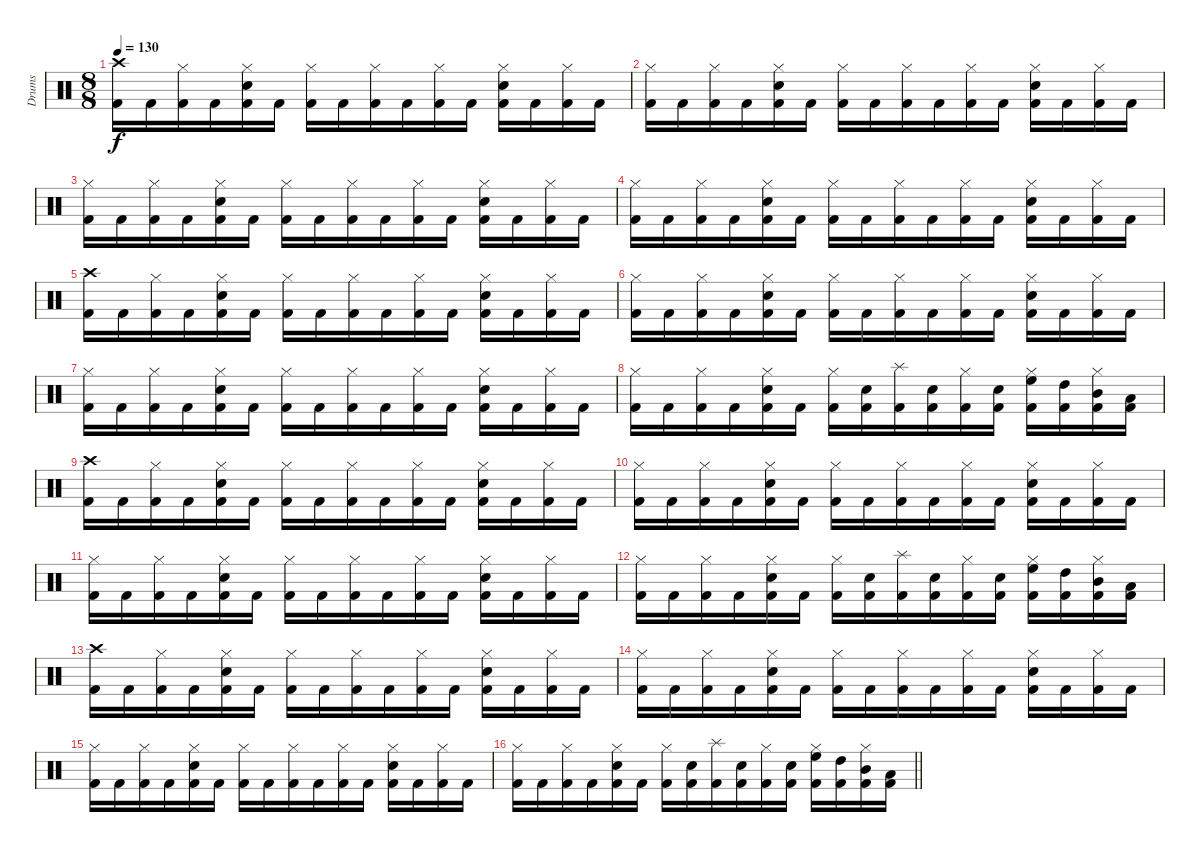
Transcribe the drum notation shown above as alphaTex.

\track ("Drums" "Drums") {instrument percussion}
\staff {score}
\articulation defaults
\ts (8 8)
\tempo 130
\clef neutral
\ks c
("Kick (hit) 2" "Crash high (hit)").16{dy f} "Kick (hit) 2".16 ("Kick (hit) 2" "Hi-Hat (closed)").16 "Kick (hit) 2".16 ("Kick (hit) 2" "Electric Snare (hit)" "Hi-Hat (closed)").16 "Kick (hit) 2".16 ("Kick (hit) 2" "Hi-Hat (closed)").16 "Kick (hit) 2".16 ("Kick (hit) 2" "Hi-Hat (closed)").16 "Kick (hit) 2".16 ("Kick (hit) 2" "Hi-Hat (closed)").16 "Kick (hit) 2".16 ("Kick (hit) 2" "Electric Snare (hit)" "Hi-Hat (closed)").16 "Kick (hit) 2".16 ("Kick (hit) 2" "Hi-Hat (closed)").16 "Kick (hit) 2".16 |
("Kick (hit) 2" "Hi-Hat (closed)").16 "Kick (hit) 2".16 ("Kick (hit) 2" "Hi-Hat (closed)").16 "Kick (hit) 2".16 ("Kick (hit) 2" "Electric Snare (hit)" "Hi-Hat (closed)").16 "Kick (hit) 2".16 ("Kick (hit) 2" "Hi-Hat (closed)").16 "Kick (hit) 2".16 ("Kick (hit) 2" "Hi-Hat (closed)").16 "Kick (hit) 2".16 ("Kick (hit) 2" "Hi-Hat (closed)").16 "Kick (hit) 2".16 ("Kick (hit) 2" "Electric Snare (hit)" "Hi-Hat (closed)").16 "Kick (hit) 2".16 ("Kick (hit) 2" "Hi-Hat (closed)").16 "Kick (hit) 2".16 |
("Kick (hit) 2" "Hi-Hat (closed)").16 "Kick (hit) 2".16 ("Kick (hit) 2" "Hi-Hat (closed)").16 "Kick (hit) 2".16 ("Kick (hit) 2" "Electric Snare (hit)" "Hi-Hat (closed)").16 "Kick (hit) 2".16 ("Kick (hit) 2" "Hi-Hat (closed)").16 "Kick (hit) 2".16 ("Kick (hit) 2" "Hi-Hat (closed)").16 "Kick (hit) 2".16 ("Kick (hit) 2" "Hi-Hat (closed)").16 "Kick (hit) 2".16 ("Kick (hit) 2" "Electric Snare (hit)" "Hi-Hat (closed)").16 "Kick (hit) 2".16 ("Kick (hit) 2" "Hi-Hat (closed)").16 "Kick (hit) 2".16 |
("Kick (hit) 2" "Hi-Hat (closed)").16 "Kick (hit) 2".16 ("Kick (hit) 2" "Hi-Hat (closed)").16 "Kick (hit) 2".16 ("Kick (hit) 2" "Electric Snare (hit)" "Hi-Hat (closed)").16 "Kick (hit) 2".16 ("Kick (hit) 2" "Hi-Hat (closed)").16 "Kick (hit) 2".16 ("Kick (hit) 2" "Hi-Hat (closed)").16 "Kick (hit) 2".16 ("Kick (hit) 2" "Hi-Hat (closed)").16 "Kick (hit) 2".16 ("Kick (hit) 2" "Electric Snare (hit)" "Hi-Hat (closed)").16 "Kick (hit) 2".16 ("Kick (hit) 2" "Hi-Hat (closed)").16 "Kick (hit) 2".16 |
("Kick (hit) 2" "Crash high (hit)").16 "Kick (hit) 2".16 ("Kick (hit) 2" "Hi-Hat (closed)").16 "Kick (hit) 2".16 ("Kick (hit) 2" "Electric Snare (hit)" "Hi-Hat (closed)").16 "Kick (hit) 2".16 ("Kick (hit) 2" "Hi-Hat (closed)").16 "Kick (hit) 2".16 ("Kick (hit) 2" "Hi-Hat (closed)").16 "Kick (hit) 2".16 ("Kick (hit) 2" "Hi-Hat (closed)").16 "Kick (hit) 2".16 ("Kick (hit) 2" "Electric Snare (hit)" "Hi-Hat (closed)").16 "Kick (hit) 2".16 ("Kick (hit) 2" "Hi-Hat (closed)").16 "Kick (hit) 2".16 |
("Kick (hit) 2" "Hi-Hat (closed)").16 "Kick (hit) 2".16 ("Kick (hit) 2" "Hi-Hat (closed)").16 "Kick (hit) 2".16 ("Kick (hit) 2" "Electric Snare (hit)" "Hi-Hat (closed)").16 "Kick (hit) 2".16 ("Kick (hit) 2" "Hi-Hat (closed)").16 "Kick (hit) 2".16 ("Kick (hit) 2" "Hi-Hat (closed)").16 "Kick (hit) 2".16 ("Kick (hit) 2" "Hi-Hat (closed)").16 "Kick (hit) 2".16 ("Kick (hit) 2" "Electric Snare (hit)" "Hi-Hat (closed)").16 "Kick (hit) 2".16 ("Kick (hit) 2" "Hi-Hat (closed)").16 "Kick (hit) 2".16 |
("Kick (hit) 2" "Hi-Hat (closed)").16 "Kick (hit) 2".16 ("Kick (hit) 2" "Hi-Hat (closed)").16 "Kick (hit) 2".16 ("Kick (hit) 2" "Electric Snare (hit)" "Hi-Hat (closed)").16 "Kick (hit) 2".16 ("Kick (hit) 2" "Hi-Hat (closed)").16 "Kick (hit) 2".16 ("Kick (hit) 2" "Hi-Hat (closed)").16 "Kick (hit) 2".16 ("Kick (hit) 2" "Hi-Hat (closed)").16 "Kick (hit) 2".16 ("Kick (hit) 2" "Electric Snare (hit)" "Hi-Hat (closed)").16 "Kick (hit) 2".16 ("Kick (hit) 2" "Hi-Hat (closed)").16 "Kick (hit) 2".16 |
("Kick (hit) 2" "Hi-Hat (closed)").16 "Kick (hit) 2".16 ("Kick (hit) 2" "Hi-Hat (closed)").16 "Kick (hit) 2".16 ("Kick (hit) 2" "Electric Snare (hit)" "Hi-Hat (closed)").16 "Kick (hit) 2".16 ("Kick (hit) 2" "Hi-Hat (closed)").16 ("Kick (hit) 2" "Electric Snare (hit)").16 ("Kick (hit) 2" "Splash (hit)").16 ("Kick (hit) 2" "Electric Snare (hit)").16 ("Kick (hit) 2" "Hi-Hat (closed)").16 ("Kick (hit) 2" "Electric Snare (hit)").16 ("Kick (hit) 2" "Hi-Hat (closed)" "High Floor Tom (hit)").16 ("Kick (hit) 2" "High Tom (hit)").16 ("Kick (hit) 2" "Hi-Hat (closed)" "Mid Tom (hit)").16 ("Kick (hit) 2" "Low Tom (hit)").16 |
("Kick (hit) 2" "Crash high (hit)").16 "Kick (hit) 2".16 ("Kick (hit) 2" "Hi-Hat (closed)").16 "Kick (hit) 2".16 ("Kick (hit) 2" "Electric Snare (hit)" "Hi-Hat (closed)").16 "Kick (hit) 2".16 ("Kick (hit) 2" "Hi-Hat (closed)").16 "Kick (hit) 2".16 ("Kick (hit) 2" "Hi-Hat (closed)").16 "Kick (hit) 2".16 ("Kick (hit) 2" "Hi-Hat (closed)").16 "Kick (hit) 2".16 ("Kick (hit) 2" "Electric Snare (hit)" "Hi-Hat (closed)").16 "Kick (hit) 2".16 ("Kick (hit) 2" "Hi-Hat (closed)").16 "Kick (hit) 2".16 |
("Kick (hit) 2" "Hi-Hat (closed)").16 "Kick (hit) 2".16 ("Kick (hit) 2" "Hi-Hat (closed)").16 "Kick (hit) 2".16 ("Kick (hit) 2" "Electric Snare (hit)" "Hi-Hat (closed)").16 "Kick (hit) 2".16 ("Kick (hit) 2" "Hi-Hat (closed)").16 "Kick (hit) 2".16 ("Kick (hit) 2" "Hi-Hat (closed)").16 "Kick (hit) 2".16 ("Kick (hit) 2" "Hi-Hat (closed)").16 "Kick (hit) 2".16 ("Kick (hit) 2" "Electric Snare (hit)" "Hi-Hat (closed)").16 "Kick (hit) 2".16 ("Kick (hit) 2" "Hi-Hat (closed)").16 "Kick (hit) 2".16 |
("Kick (hit) 2" "Hi-Hat (closed)").16 "Kick (hit) 2".16 ("Kick (hit) 2" "Hi-Hat (closed)").16 "Kick (hit) 2".16 ("Kick (hit) 2" "Electric Snare (hit)" "Hi-Hat (closed)").16 "Kick (hit) 2".16 ("Kick (hit) 2" "Hi-Hat (closed)").16 "Kick (hit) 2".16 ("Kick (hit) 2" "Hi-Hat (closed)").16 "Kick (hit) 2".16 ("Kick (hit) 2" "Hi-Hat (closed)").16 "Kick (hit) 2".16 ("Kick (hit) 2" "Electric Snare (hit)" "Hi-Hat (closed)").16 "Kick (hit) 2".16 ("Kick (hit) 2" "Hi-Hat (closed)").16 "Kick (hit) 2".16 |
("Kick (hit) 2" "Hi-Hat (closed)").16 "Kick (hit) 2".16 ("Kick (hit) 2" "Hi-Hat (closed)").16 "Kick (hit) 2".16 ("Kick (hit) 2" "Electric Snare (hit)" "Hi-Hat (closed)").16 "Kick (hit) 2".16 ("Kick (hit) 2" "Hi-Hat (closed)").16 ("Kick (hit) 2" "Electric Snare (hit)").16 ("Kick (hit) 2" "Splash (hit)").16 ("Kick (hit) 2" "Electric Snare (hit)").16 ("Kick (hit) 2" "Hi-Hat (closed)").16 ("Kick (hit) 2" "Electric Snare (hit)").16 ("Kick (hit) 2" "Hi-Hat (closed)" "High Floor Tom (hit)").16 ("Kick (hit) 2" "High Tom (hit)").16 ("Kick (hit) 2" "Hi-Hat (closed)" "Mid Tom (hit)").16 ("Kick (hit) 2" "Low Tom (hit)").16 |
("Kick (hit) 2" "Crash high (hit)").16 "Kick (hit) 2".16 ("Kick (hit) 2" "Hi-Hat (closed)").16 "Kick (hit) 2".16 ("Kick (hit) 2" "Electric Snare (hit)" "Hi-Hat (closed)").16 "Kick (hit) 2".16 ("Kick (hit) 2" "Hi-Hat (closed)").16 "Kick (hit) 2".16 ("Kick (hit) 2" "Hi-Hat (closed)").16 "Kick (hit) 2".16 ("Kick (hit) 2" "Hi-Hat (closed)").16 "Kick (hit) 2".16 ("Kick (hit) 2" "Electric Snare (hit)" "Hi-Hat (closed)").16 "Kick (hit) 2".16 ("Kick (hit) 2" "Hi-Hat (closed)").16 "Kick (hit) 2".16 |
("Kick (hit) 2" "Hi-Hat (closed)").16 "Kick (hit) 2".16 ("Kick (hit) 2" "Hi-Hat (closed)").16 "Kick (hit) 2".16 ("Kick (hit) 2" "Electric Snare (hit)" "Hi-Hat (closed)").16 "Kick (hit) 2".16 ("Kick (hit) 2" "Hi-Hat (closed)").16 "Kick (hit) 2".16 ("Kick (hit) 2" "Hi-Hat (closed)").16 "Kick (hit) 2".16 ("Kick (hit) 2" "Hi-Hat (closed)").16 "Kick (hit) 2".16 ("Kick (hit) 2" "Electric Snare (hit)" "Hi-Hat (closed)").16 "Kick (hit) 2".16 ("Kick (hit) 2" "Hi-Hat (closed)").16 "Kick (hit) 2".16 |
("Kick (hit) 2" "Hi-Hat (closed)").16 "Kick (hit) 2".16 ("Kick (hit) 2" "Hi-Hat (closed)").16 "Kick (hit) 2".16 ("Kick (hit) 2" "Electric Snare (hit)" "Hi-Hat (closed)").16 "Kick (hit) 2".16 ("Kick (hit) 2" "Hi-Hat (closed)").16 "Kick (hit) 2".16 ("Kick (hit) 2" "Hi-Hat (closed)").16 "Kick (hit) 2".16 ("Kick (hit) 2" "Hi-Hat (closed)").16 "Kick (hit) 2".16 ("Kick (hit) 2" "Electric Snare (hit)" "Hi-Hat (closed)").16 "Kick (hit) 2".16 ("Kick (hit) 2" "Hi-Hat (closed)").16 "Kick (hit) 2".16 |
\barLineRight lightlight
("Kick (hit) 2" "Hi-Hat (closed)").16 "Kick (hit) 2".16 ("Kick (hit) 2" "Hi-Hat (closed)").16 "Kick (hit) 2".16 ("Kick (hit) 2" "Electric Snare (hit)" "Hi-Hat (closed)").16 "Kick (hit) 2".16 ("Kick (hit) 2" "Hi-Hat (closed)").16 ("Kick (hit) 2" "Electric Snare (hit)").16 ("Kick (hit) 2" "Splash (hit)").16 ("Kick (hit) 2" "Electric Snare (hit)").16 ("Kick (hit) 2" "Hi-Hat (closed)").16 ("Kick (hit) 2" "Electric Snare (hit)").16 ("Kick (hit) 2" "Hi-Hat (closed)" "High Floor Tom (hit)").16 ("Kick (hit) 2" "High Tom (hit)").16 ("Kick (hit) 2" "Hi-Hat (closed)" "Mid Tom (hit)").16 ("Kick (hit) 2" "Low Tom (hit)").16
